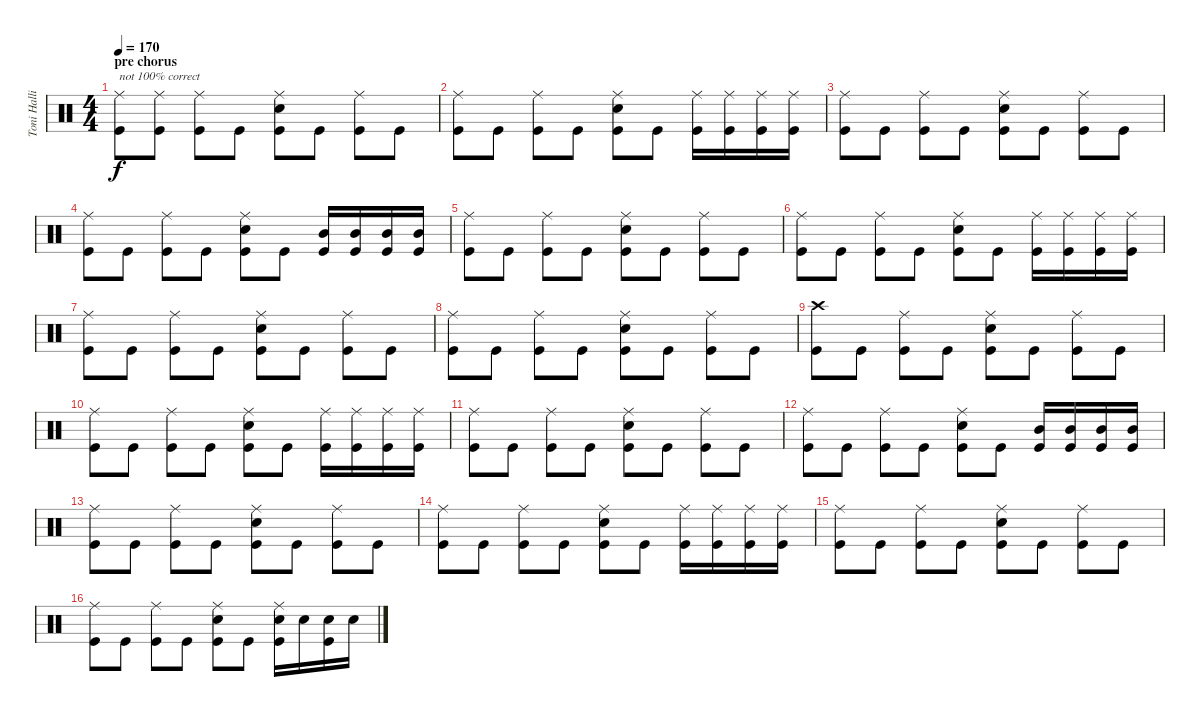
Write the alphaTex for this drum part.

\track ("Toni Hallio" "Toni Halli") {instrument percussion}
\staff {score}
\articulation defaults
\ts (4 4)
\section ("" "pre chorus")
\tempo 170
\clef neutral
\ks c
("Ride (middle)" "Kick (hit)").8{txt "not 100% correct" dy f} ("Ride (middle)" "Kick (hit)").8 ("Ride (middle)" "Kick (hit)").8 "Kick (hit)".8 ("Ride (middle)" "Snare (hit) 2" "Kick (hit)").8 "Kick (hit)".8 ("Ride (middle)" "Kick (hit)").8 "Kick (hit)".8 |
("Ride (middle)" "Kick (hit)").8 "Kick (hit)".8 ("Ride (middle)" "Kick (hit)").8 "Kick (hit)".8 ("Ride (middle)" "Snare (hit) 2" "Kick (hit)").8 "Kick (hit)".8 ("Ride (middle)" "Kick (hit)").16 ("Ride (middle)" "Kick (hit)").16 ("Ride (middle)" "Kick (hit)").16 ("Ride (middle)" "Kick (hit)").16 |
("Ride (middle)" "Kick (hit)").8 "Kick (hit)".8 ("Ride (middle)" "Kick (hit)").8 "Kick (hit)".8 ("Ride (middle)" "Snare (hit) 2" "Kick (hit)").8 "Kick (hit)".8 ("Ride (middle)" "Kick (hit)").8 "Kick (hit)".8 |
("Ride (middle)" "Kick (hit)").8 "Kick (hit)".8 ("Ride (middle)" "Kick (hit)").8 "Kick (hit)".8 ("Ride (middle)" "Snare (hit) 2" "Kick (hit)").8 "Kick (hit)".8 ("Mid Tom (hit)" "Kick (hit)").16 ("Mid Tom (hit)" "Kick (hit)").16 ("Mid Tom (hit)" "Kick (hit)").16 ("Mid Tom (hit)" "Kick (hit)").16 |
("Ride (middle)" "Kick (hit)").8 "Kick (hit)".8 ("Ride (middle)" "Kick (hit)").8 "Kick (hit)".8 ("Ride (middle)" "Snare (hit) 2" "Kick (hit)").8 "Kick (hit)".8 ("Ride (middle)" "Kick (hit)").8 "Kick (hit)".8 |
("Ride (middle)" "Kick (hit)").8 "Kick (hit)".8 ("Ride (middle)" "Kick (hit)").8 "Kick (hit)".8 ("Ride (middle)" "Snare (hit) 2" "Kick (hit)").8 "Kick (hit)".8 ("Ride (middle)" "Kick (hit)").16 ("Ride (middle)" "Kick (hit)").16 ("Ride (middle)" "Kick (hit)").16 ("Ride (middle)" "Kick (hit)").16 |
("Ride (middle)" "Kick (hit)").8 "Kick (hit)".8 ("Ride (middle)" "Kick (hit)").8 "Kick (hit)".8 ("Ride (middle)" "Snare (hit) 2" "Kick (hit)").8 "Kick (hit)".8 ("Ride (middle)" "Kick (hit)").8 "Kick (hit)".8 |
("Ride (middle)" "Kick (hit)").8 "Kick (hit)".8 ("Ride (middle)" "Kick (hit)").8 "Kick (hit)".8 ("Ride (middle)" "Snare (hit) 2" "Kick (hit)").8 "Kick (hit)".8 ("Ride (middle)" "Kick (hit)").8 "Kick (hit)".8 |
("Crash high (hit)" "Kick (hit)").8 "Kick (hit)".8 ("Ride (middle)" "Kick (hit)").8 "Kick (hit)".8 ("Ride (middle)" "Snare (hit) 2" "Kick (hit)").8 "Kick (hit)".8 ("Ride (middle)" "Kick (hit)").8 "Kick (hit)".8 |
("Ride (middle)" "Kick (hit)").8 "Kick (hit)".8 ("Ride (middle)" "Kick (hit)").8 "Kick (hit)".8 ("Ride (middle)" "Snare (hit) 2" "Kick (hit)").8 "Kick (hit)".8 ("Ride (middle)" "Kick (hit)").16 ("Ride (middle)" "Kick (hit)").16 ("Ride (middle)" "Kick (hit)").16 ("Ride (middle)" "Kick (hit)").16 |
("Ride (middle)" "Kick (hit)").8 "Kick (hit)".8 ("Ride (middle)" "Kick (hit)").8 "Kick (hit)".8 ("Ride (middle)" "Snare (hit) 2" "Kick (hit)").8 "Kick (hit)".8 ("Ride (middle)" "Kick (hit)").8 "Kick (hit)".8 |
("Ride (middle)" "Kick (hit)").8 "Kick (hit)".8 ("Ride (middle)" "Kick (hit)").8 "Kick (hit)".8 ("Ride (middle)" "Snare (hit) 2" "Kick (hit)").8 "Kick (hit)".8 ("Mid Tom (hit)" "Kick (hit)").16 ("Mid Tom (hit)" "Kick (hit)").16 ("Mid Tom (hit)" "Kick (hit)").16 ("Mid Tom (hit)" "Kick (hit)").16 |
("Ride (middle)" "Kick (hit)").8 "Kick (hit)".8 ("Ride (middle)" "Kick (hit)").8 "Kick (hit)".8 ("Ride (middle)" "Snare (hit) 2" "Kick (hit)").8 "Kick (hit)".8 ("Ride (middle)" "Kick (hit)").8 "Kick (hit)".8 |
("Ride (middle)" "Kick (hit)").8 "Kick (hit)".8 ("Ride (middle)" "Kick (hit)").8 "Kick (hit)".8 ("Ride (middle)" "Snare (hit) 2" "Kick (hit)").8 "Kick (hit)".8 ("Ride (middle)" "Kick (hit)").16 ("Ride (middle)" "Kick (hit)").16 ("Ride (middle)" "Kick (hit)").16 ("Ride (middle)" "Kick (hit)").16 |
("Ride (middle)" "Kick (hit)").8 "Kick (hit)".8 ("Ride (middle)" "Kick (hit)").8 "Kick (hit)".8 ("Ride (middle)" "Snare (hit) 2" "Kick (hit)").8 "Kick (hit)".8 ("Ride (middle)" "Kick (hit)").8 "Kick (hit)".8 |
("Ride (middle)" "Kick (hit)").8 "Kick (hit)".8 ("Ride (middle)" "Kick (hit)").8 "Kick (hit)".8 ("Ride (middle)" "Snare (hit) 2" "Kick (hit)").8 "Kick (hit)".8 ("Ride (middle)" "Snare (hit) 2" "Kick (hit)").16 "Snare (hit) 2".16 ("Snare (hit) 2" "Kick (hit)").16 "Snare (hit) 2".16
